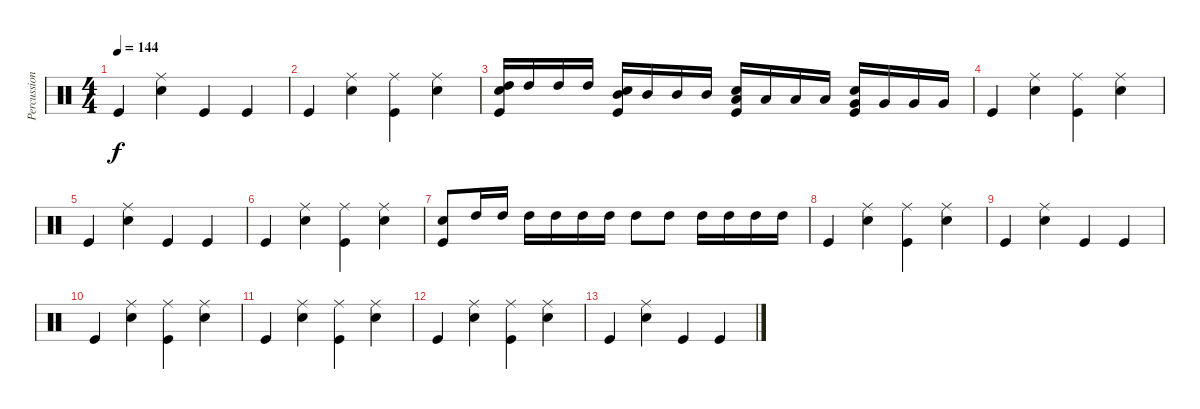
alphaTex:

\track ("Percussion" "Percussion") {instrument percussion}
\staff {score}
\articulation defaults
\ts (4 4)
\tempo 144
\clef neutral
\ks c "Kick (hit)".4{dy f}
("Ride (middle)" "Snare (hit) 2").4 "Kick (hit)".4 "Kick (hit)".4 |
"Kick (hit)".4 ("Ride (middle)" "Snare (hit) 2").4 ("Ride (middle)" "Kick (hit)").4 ("Ride (middle)" "Snare (hit) 2").4 |
("Snare (hit) 2" "High Tom (hit)" "Kick (hit)").16 "High Tom (hit)".16 "High Tom (hit)".16 "High Tom (hit)".16 ("Snare (hit) 2" "Mid Tom (hit)" "Kick (hit)").16 "Mid Tom (hit)".16 "Mid Tom (hit)".16 "Mid Tom (hit)".16 ("Snare (hit) 2" "Low Tom (hit)" "Kick (hit)").16 "Low Tom (hit)".16 "Low Tom (hit)".16 "Low Tom (hit)".16 ("Snare (hit) 2" "Very Low Tom (hit)" "Kick (hit)").16 "Very Low Tom (hit)".16 "Very Low Tom (hit)".16 "Very Low Tom (hit)".16 |
"Kick (hit)".4 ("Ride (middle)" "Snare (hit) 2").4 ("Ride (middle)" "Kick (hit)").4 ("Ride (middle)" "Snare (hit) 2").4 |
"Kick (hit)".4 ("Ride (middle)" "Snare (hit) 2").4 "Kick (hit)".4 "Kick (hit)".4 |
"Kick (hit)".4 ("Ride (middle)" "Snare (hit) 2").4 ("Ride (middle)" "Kick (hit)").4 ("Ride (middle)" "Snare (hit) 2").4 |
("Snare (hit) 2" "Kick (hit)").8 "High Tom (hit)".16 "High Tom (hit)".16 "High Tom (hit)".16 "High Tom (hit)".16 "High Tom (hit)".16 "High Tom (hit)".16 "High Tom (hit)".8 "High Tom (hit)".8 "High Tom (hit)".16 "High Tom (hit)".16 "High Tom (hit)".16 "High Tom (hit)".16 |
"Kick (hit)".4 ("Ride (middle)" "Snare (hit) 2").4 ("Ride (middle)" "Kick (hit)").4 ("Ride (middle)" "Snare (hit) 2").4 |
"Kick (hit)".4 ("Ride (middle)" "Snare (hit) 2").4 "Kick (hit)".4 "Kick (hit)".4 |
"Kick (hit)".4 ("Ride (middle)" "Snare (hit) 2").4 ("Ride (middle)" "Kick (hit)").4 ("Ride (middle)" "Snare (hit) 2").4 |
"Kick (hit)".4 ("Ride (middle)" "Snare (hit) 2").4 ("Ride (middle)" "Kick (hit)").4 ("Ride (middle)" "Snare (hit) 2").4 |
"Kick (hit)".4 ("Ride (middle)" "Snare (hit) 2").4 ("Ride (middle)" "Kick (hit)").4 ("Ride (middle)" "Snare (hit) 2").4 |
"Kick (hit)".4 ("Ride (middle)" "Snare (hit) 2").4 "Kick (hit)".4 "Kick (hit)".4
